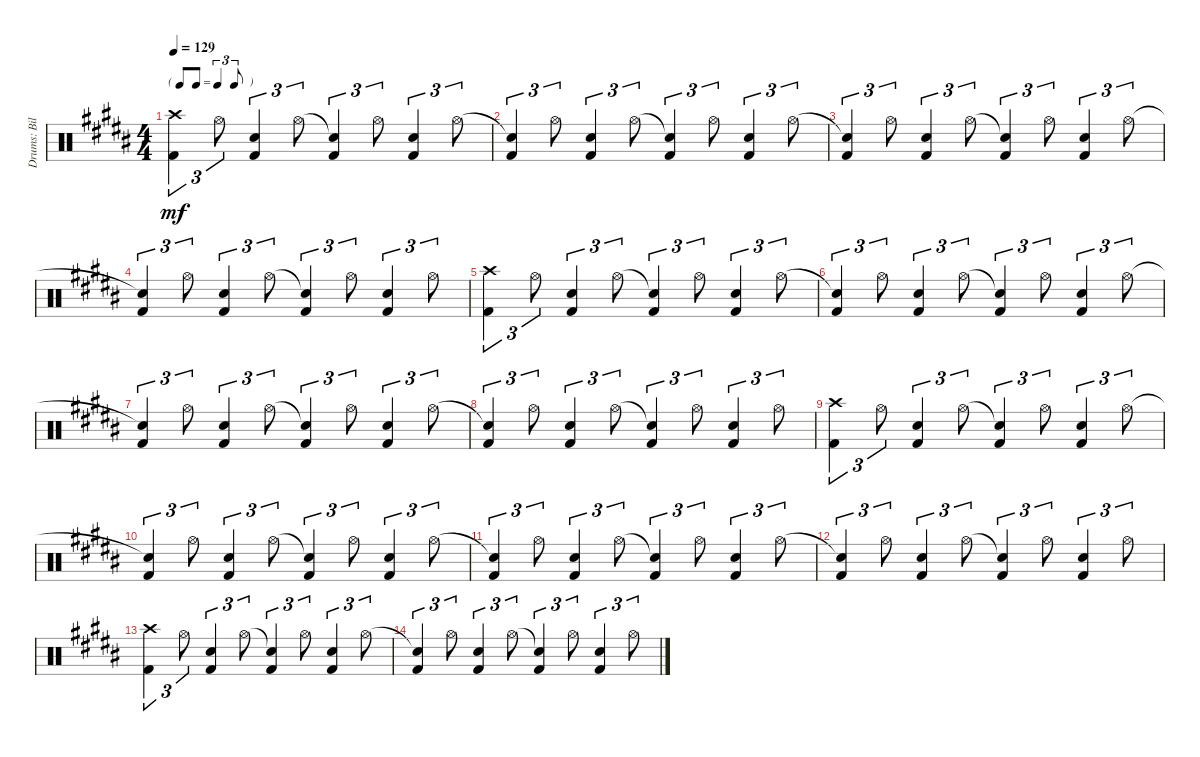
\track ("Drums: Bill" "Drums: Bil") {instrument percussion}
\staff {score}
\articulation defaults
\ts (4 4)
\tf triplet8th
\tempo 129
\clef neutral
\ks b
("Crash high (hit)" "Kick (hit) 2").4{tu (3 2) dy mf} "Hi-Hat (open)".8{tu (3 2)} ("Electric Snare (hit)" "Kick (hit) 2").4{tu (3 2)} "Hi-Hat (open)".8{tu (3 2)} ("Snare (hit)"{t} "Kick (hit) 2").4{tu (3 2)} "Hi-Hat (open)".8{tu (3 2)} ("Electric Snare (hit)" "Kick (hit) 2").4{tu (3 2)} "Hi-Hat (open)".8{tu (3 2)} |
("Snare (hit)"{t} "Kick (hit) 2").4{tu (3 2)} "Hi-Hat (open)".8{tu (3 2)} ("Electric Snare (hit)" "Kick (hit) 2").4{tu (3 2)} "Hi-Hat (open)".8{tu (3 2)} ("Snare (hit)"{t} "Kick (hit) 2").4{tu (3 2)} "Hi-Hat (open)".8{tu (3 2)} ("Electric Snare (hit)" "Kick (hit) 2").4{tu (3 2)} "Hi-Hat (open)".8{tu (3 2)} |
("Snare (hit)"{t} "Kick (hit) 2").4{tu (3 2)} "Hi-Hat (open)".8{tu (3 2)} ("Electric Snare (hit)" "Kick (hit) 2").4{tu (3 2)} "Hi-Hat (open)".8{tu (3 2)} ("Snare (hit)"{t} "Kick (hit) 2").4{tu (3 2)} "Hi-Hat (open)".8{tu (3 2)} ("Electric Snare (hit)" "Kick (hit) 2").4{tu (3 2)} "Hi-Hat (open)".8{tu (3 2)} |
("Snare (hit)"{t} "Kick (hit) 2").4{tu (3 2)} "Hi-Hat (open)".8{tu (3 2)} ("Electric Snare (hit)" "Kick (hit) 2").4{tu (3 2)} "Hi-Hat (open)".8{tu (3 2)} ("Snare (hit)"{t} "Kick (hit) 2").4{tu (3 2)} "Hi-Hat (open)".8{tu (3 2)} ("Electric Snare (hit)" "Kick (hit) 2").4{tu (3 2)} "Hi-Hat (open)".8{tu (3 2)} |
("Crash high (hit)" "Kick (hit) 2").4{tu (3 2)} "Hi-Hat (open)".8{tu (3 2)} ("Electric Snare (hit)" "Kick (hit) 2").4{tu (3 2)} "Hi-Hat (open)".8{tu (3 2)} ("Snare (hit)"{t} "Kick (hit) 2").4{tu (3 2)} "Hi-Hat (open)".8{tu (3 2)} ("Electric Snare (hit)" "Kick (hit) 2").4{tu (3 2)} "Hi-Hat (open)".8{tu (3 2)} |
("Snare (hit)"{t} "Kick (hit) 2").4{tu (3 2)} "Hi-Hat (open)".8{tu (3 2)} ("Electric Snare (hit)" "Kick (hit) 2").4{tu (3 2)} "Hi-Hat (open)".8{tu (3 2)} ("Snare (hit)"{t} "Kick (hit) 2").4{tu (3 2)} "Hi-Hat (open)".8{tu (3 2)} ("Electric Snare (hit)" "Kick (hit) 2").4{tu (3 2)} "Hi-Hat (open)".8{tu (3 2)} |
("Snare (hit)"{t} "Kick (hit) 2").4{tu (3 2)} "Hi-Hat (open)".8{tu (3 2)} ("Electric Snare (hit)" "Kick (hit) 2").4{tu (3 2)} "Hi-Hat (open)".8{tu (3 2)} ("Snare (hit)"{t} "Kick (hit) 2").4{tu (3 2)} "Hi-Hat (open)".8{tu (3 2)} ("Electric Snare (hit)" "Kick (hit) 2").4{tu (3 2)} "Hi-Hat (open)".8{tu (3 2)} |
("Snare (hit)"{t} "Kick (hit) 2").4{tu (3 2)} "Hi-Hat (open)".8{tu (3 2)} ("Electric Snare (hit)" "Kick (hit) 2").4{tu (3 2)} "Hi-Hat (open)".8{tu (3 2)} ("Snare (hit)"{t} "Kick (hit) 2").4{tu (3 2)} "Hi-Hat (open)".8{tu (3 2)} ("Electric Snare (hit)" "Kick (hit) 2").4{tu (3 2)} "Hi-Hat (open)".8{tu (3 2)} |
("Crash high (hit)" "Kick (hit) 2").4{tu (3 2)} "Hi-Hat (open)".8{tu (3 2)} ("Electric Snare (hit)" "Kick (hit) 2").4{tu (3 2)} "Hi-Hat (open)".8{tu (3 2)} ("Snare (hit)"{t} "Kick (hit) 2").4{tu (3 2)} "Hi-Hat (open)".8{tu (3 2)} ("Electric Snare (hit)" "Kick (hit) 2").4{tu (3 2)} "Hi-Hat (open)".8{tu (3 2)} |
("Snare (hit)"{t} "Kick (hit) 2").4{tu (3 2)} "Hi-Hat (open)".8{tu (3 2)} ("Electric Snare (hit)" "Kick (hit) 2").4{tu (3 2)} "Hi-Hat (open)".8{tu (3 2)} ("Snare (hit)"{t} "Kick (hit) 2").4{tu (3 2)} "Hi-Hat (open)".8{tu (3 2)} ("Electric Snare (hit)" "Kick (hit) 2").4{tu (3 2)} "Hi-Hat (open)".8{tu (3 2)} |
("Snare (hit)"{t} "Kick (hit) 2").4{tu (3 2)} "Hi-Hat (open)".8{tu (3 2)} ("Electric Snare (hit)" "Kick (hit) 2").4{tu (3 2)} "Hi-Hat (open)".8{tu (3 2)} ("Snare (hit)"{t} "Kick (hit) 2").4{tu (3 2)} "Hi-Hat (open)".8{tu (3 2)} ("Electric Snare (hit)" "Kick (hit) 2").4{tu (3 2)} "Hi-Hat (open)".8{tu (3 2)} |
("Snare (hit)"{t} "Kick (hit) 2").4{tu (3 2)} "Hi-Hat (open)".8{tu (3 2)} ("Electric Snare (hit)" "Kick (hit) 2").4{tu (3 2)} "Hi-Hat (open)".8{tu (3 2)} ("Snare (hit)"{t} "Kick (hit) 2").4{tu (3 2)} "Hi-Hat (open)".8{tu (3 2)} ("Electric Snare (hit)" "Kick (hit) 2").4{tu (3 2)} "Hi-Hat (open)".8{tu (3 2)} |
("Crash high (hit)" "Kick (hit) 2").4{tu (3 2)} "Hi-Hat (open)".8{tu (3 2)} ("Electric Snare (hit)" "Kick (hit) 2").4{tu (3 2)} "Hi-Hat (open)".8{tu (3 2)} ("Snare (hit)"{t} "Kick (hit) 2").4{tu (3 2)} "Hi-Hat (open)".8{tu (3 2)} ("Electric Snare (hit)" "Kick (hit) 2").4{tu (3 2)} "Hi-Hat (open)".8{tu (3 2)} |
("Snare (hit)"{t} "Kick (hit) 2").4{tu (3 2)} "Hi-Hat (open)".8{tu (3 2)} ("Electric Snare (hit)" "Kick (hit) 2").4{tu (3 2)} "Hi-Hat (open)".8{tu (3 2)} ("Snare (hit)"{t} "Kick (hit) 2").4{tu (3 2)} "Hi-Hat (open)".8{tu (3 2)} ("Electric Snare (hit)" "Kick (hit) 2").4{tu (3 2)} "Hi-Hat (open)".8{tu (3 2)}
